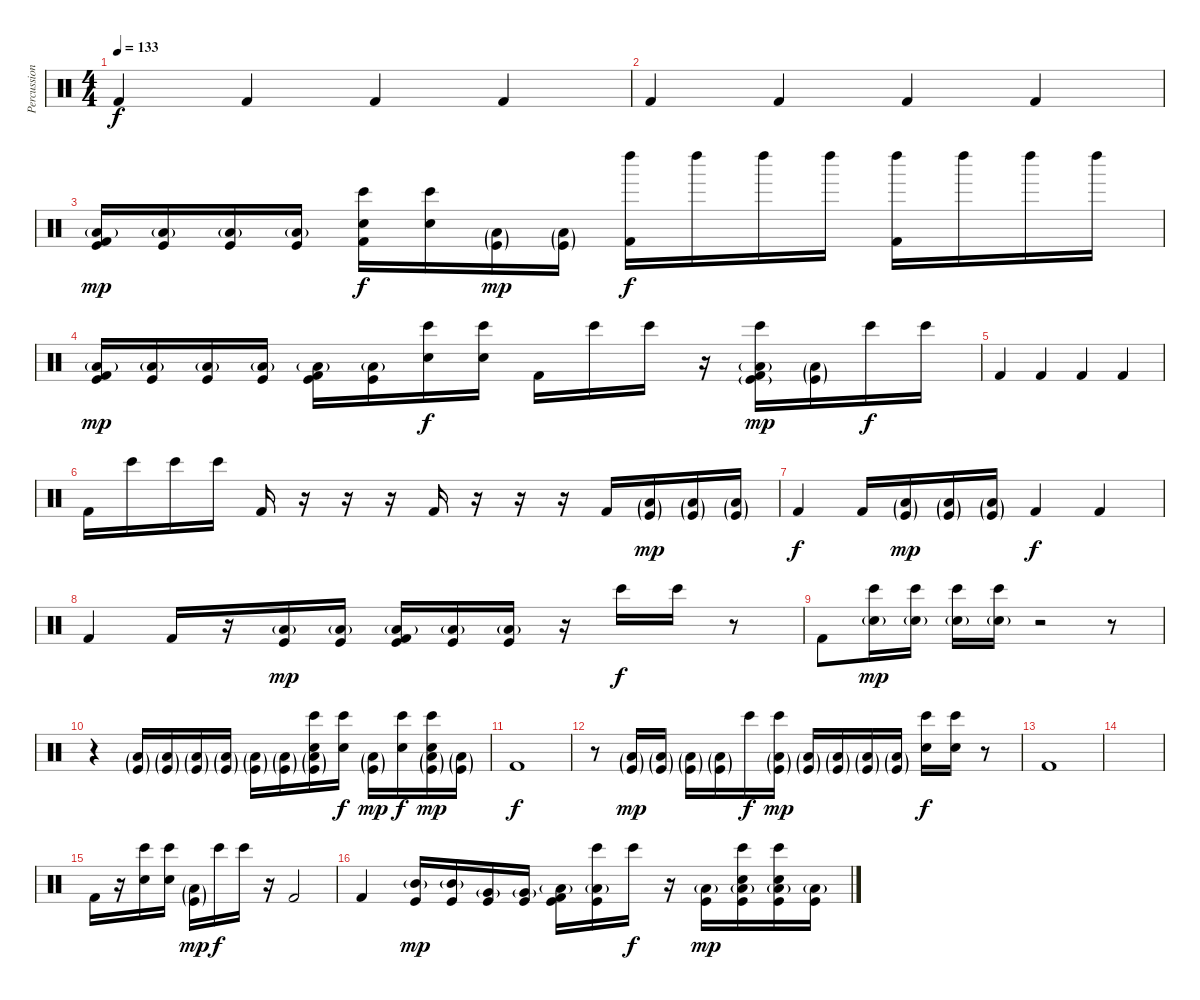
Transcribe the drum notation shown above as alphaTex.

\track ("Percussion" "Percussion") {instrument percussion}
\staff {score}
\articulation defaults
\ts (4 4)
\tempo 133
\clef neutral
\ks c "Kick (hit) 2".4{dy f} "Kick (hit) 2".4 "Kick (hit) 2".4 "Kick (hit) 2".4
|
"Kick (hit) 2".4 "Kick (hit) 2".4 "Kick (hit) 2".4 "Kick (hit) 2".4 |
("Low Floor Tom (hit)"{g} "Kick (hit)" "Kick (hit) 2").16{dy mp} ("Low Floor Tom (hit)"{g} "Kick (hit)").16 ("Low Floor Tom (hit)"{g} "Kick (hit)").16 ("Low Floor Tom (hit)"{g} "Kick (hit)").16 ("Hand Clap (hit)" "Bongo High (hit)" "Kick (hit) 2").16{dy f} ("Hand Clap (hit)" "Bongo High (hit)").16 ("Low Floor Tom (hit)"{g} "Kick (hit)"{g}).16{dy mp} ("Low Floor Tom (hit)"{g} "Kick (hit)"{g}).16 ("Left Maraca (hit)" "Kick (hit) 2").16{dy f} "Left Maraca (hit)".16 "Left Maraca (hit)".16 "Left Maraca (hit)".16 ("Left Maraca (hit)" "Kick (hit) 2").16 "Left Maraca (hit)".16 "Left Maraca (hit)".16 "Left Maraca (hit)".16 |
("Low Floor Tom (hit)"{g} "Kick (hit)" "Kick (hit) 2").16{dy mp} ("Low Floor Tom (hit)"{g} "Kick (hit)").16 ("Low Floor Tom (hit)"{g} "Kick (hit)").16 ("Low Floor Tom (hit)"{g} "Kick (hit)").16 ("Low Floor Tom (hit)"{g} "Kick (hit)" "Kick (hit) 2").16 ("Low Floor Tom (hit)"{g} "Kick (hit)").16 ("Hand Clap (hit)" "Bongo High (hit)").16{dy f} ("Hand Clap (hit)" "Bongo High (hit)").16 "Kick (hit) 2".16 "Bongo High (hit)".16 "Bongo High (hit)".16 r.16 ("Low Floor Tom (hit)"{g} "Kick (hit)"{g} "Bongo High (hit)" "Kick (hit) 2").16{dy mp} ("Low Floor Tom (hit)"{g} "Kick (hit)"{g}).16 "Bongo High (hit)".16{dy f} "Bongo High (hit)".16 |
"Kick (hit) 2".4 "Kick (hit) 2".4 "Kick (hit) 2".4 "Kick (hit) 2".4 |
"Kick (hit) 2".16 "Bongo High (hit)".16 "Bongo High (hit)".16 "Bongo High (hit)".16 "Kick (hit) 2".16 r.16 r.16 r.16 "Kick (hit) 2".16 r.16 r.16 r.16 "Kick (hit) 2".16 ("Low Floor Tom (hit)"{g} "Kick (hit)"{g}).16{dy mp} ("Low Floor Tom (hit)"{g} "Kick (hit)"{g}).16 ("Low Floor Tom (hit)"{g} "Kick (hit)"{g}).16 |
"Kick (hit) 2".4{dy f} "Kick (hit) 2".16 ("Low Floor Tom (hit)"{g} "Kick (hit)"{g}).16{dy mp} ("Low Floor Tom (hit)"{g} "Kick (hit)"{g}).16 ("Low Floor Tom (hit)"{g} "Kick (hit)"{g}).16 "Kick (hit) 2".4{dy f} "Kick (hit) 2".4 |
"Kick (hit) 2".4 "Kick (hit) 2".16 r.16 ("Low Floor Tom (hit)"{g} "Kick (hit)").16{dy mp} ("Low Floor Tom (hit)"{g} "Kick (hit)").16 ("Low Floor Tom (hit)"{g} "Kick (hit)" "Kick (hit) 2").16 ("Low Floor Tom (hit)"{g} "Kick (hit)").16 ("Low Floor Tom (hit)"{g} "Kick (hit)").16 r.16 "Bongo High (hit)".16{dy f} "Bongo High (hit)".16 r.8 |
"Kick (hit) 2".8 ("Hand Clap (hit)"{g} "Bongo High (hit)").16{dy mp} ("Hand Clap (hit)"{g} "Bongo High (hit)").16 ("Hand Clap (hit)"{g} "Bongo High (hit)").16 ("Hand Clap (hit)"{g} "Bongo High (hit)").16 r.2 r.8 |
r.4 ("Low Floor Tom (hit)"{g} "Kick (hit)"{g}).16 ("Low Floor Tom (hit)"{g} "Kick (hit)"{g}).16 ("Low Floor Tom (hit)"{g} "Kick (hit)"{g}).16 ("Low Floor Tom (hit)"{g} "Kick (hit)"{g}).16 ("Low Floor Tom (hit)"{g} "Kick (hit)"{g}).16 ("Low Floor Tom (hit)"{g} "Kick (hit)"{g}).16 ("Hand Clap (hit)" "Bongo High (hit)" "Low Floor Tom (hit)"{g} "Kick (hit)"{g}).16 ("Hand Clap (hit)" "Bongo High (hit)").16{dy f} ("Low Floor Tom (hit)"{g} "Kick (hit)"{g}).16{dy mp} ("Hand Clap (hit)" "Bongo High (hit)").16{dy f} ("Hand Clap (hit)" "Bongo High (hit)" "Low Floor Tom (hit)"{g} "Kick (hit)"{g}).16{dy mp} ("Low Floor Tom (hit)"{g} "Kick (hit)"{g}).16 |
"Kick (hit) 2".1{dy f} |
r.8 ("Low Floor Tom (hit)"{g} "Kick (hit)"{g}).16{dy mp} ("Low Floor Tom (hit)"{g} "Kick (hit)"{g}).16 ("Low Floor Tom (hit)"{g} "Kick (hit)"{g}).16 ("Low Floor Tom (hit)"{g} "Kick (hit)"{g}).16 "Bongo High (hit)".16{dy f} ("Bongo High (hit)" "Low Floor Tom (hit)"{g} "Kick (hit)"{g}).16{dy mp} ("Low Floor Tom (hit)"{g} "Kick (hit)"{g}).16 ("Low Floor Tom (hit)"{g} "Kick (hit)"{g}).16 ("Low Floor Tom (hit)"{g} "Kick (hit)"{g}).16 ("Low Floor Tom (hit)"{g} "Kick (hit)"{g}).16 ("Hand Clap (hit)" "Bongo High (hit)").16{dy f} ("Hand Clap (hit)" "Bongo High (hit)").16 r.8 |
"Kick (hit) 2".1 |
|
"Kick (hit) 2".16 r.16 ("Hand Clap (hit)" "Bongo High (hit)").16 ("Hand Clap (hit)" "Bongo High (hit)").16 ("Kick (hit)"{g} "Low Floor Tom (hit)"{g}).16{dy mp} "Bongo High (hit)".16{dy f} "Bongo High (hit)".16 r.16 "Kick (hit) 2".2 |
"Kick (hit) 2".4 ("Mid Tom (hit)"{g} "Kick (hit)").16{dy mp} ("Mid Tom (hit)"{g} "Kick (hit)").16 ("Very Low Tom (hit)"{g} "Kick (hit)").16 ("Very Low Tom (hit)"{g} "Kick (hit)").16 ("Low Tom (hit)"{g} "Kick (hit)" "Kick (hit) 2").16 ("Bongo High (hit)" "Low Tom (hit)"{g} "Kick (hit)").16 "Bongo High (hit)".16{dy f} r.16 ("Kick (hit)" "Low Floor Tom (hit)"{g}).16{dy mp} ("Bongo High (hit)" "Hand Clap (hit)" "Kick (hit)" "Low Floor Tom (hit)"{g}).16 ("Bongo High (hit)" "Hand Clap (hit)" "Kick (hit)" "Low Floor Tom (hit)"{g}).16 ("Kick (hit)" "Low Floor Tom (hit)"{g}).16
